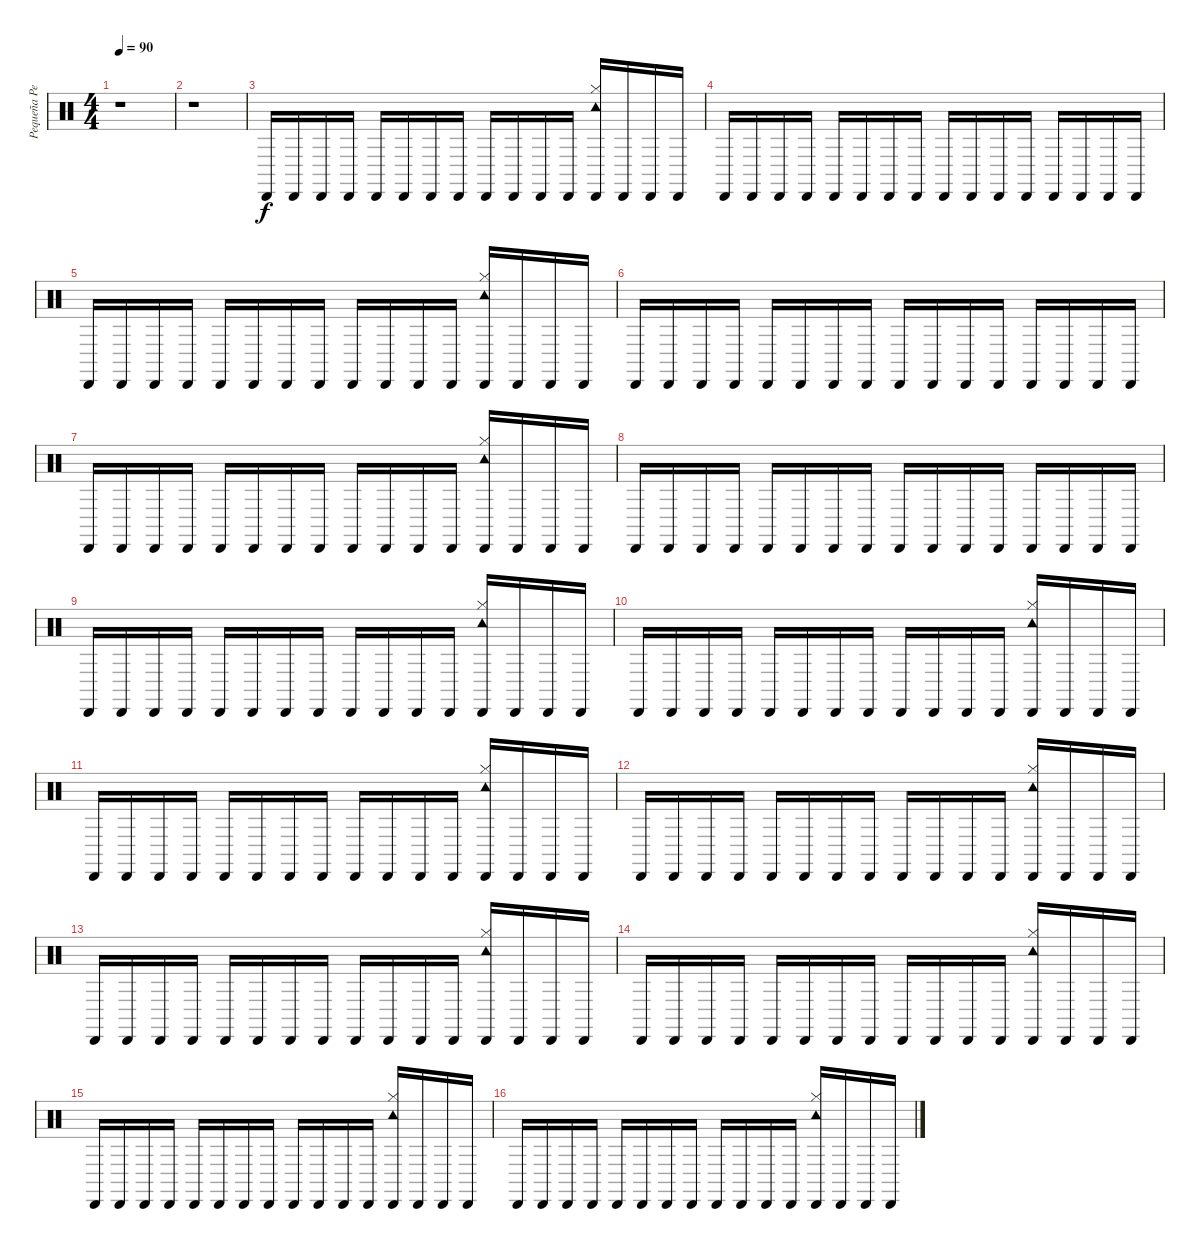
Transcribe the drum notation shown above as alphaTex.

\track ("Pequeña Percusión" "Pequeña Pe") {instrument percussion}
\staff {score}
\articulation defaults
\ts (4 4)
\tempo 90
\clef neutral
\ks c
r.1{dy f} |
r.1 |
"Cabasa (hit)".16 "Cabasa (hit)".16 "Cabasa (hit)".16 "Cabasa (hit)".16 "Cabasa (hit)".16 "Cabasa (hit)".16 "Cabasa (hit)".16 "Cabasa (hit)".16 "Cabasa (hit)".16 "Cabasa (hit)".16 "Cabasa (hit)".16 "Cabasa (hit)".16 ("Cabasa (hit)" "Tambourine (hit)" "Hi-Hat (closed)").16 "Cabasa (hit)".16 "Cabasa (hit)".16 "Cabasa (hit)".16 |
"Cabasa (hit)".16 "Cabasa (hit)".16 "Cabasa (hit)".16 "Cabasa (hit)".16 "Cabasa (hit)".16 "Cabasa (hit)".16 "Cabasa (hit)".16 "Cabasa (hit)".16 "Cabasa (hit)".16 "Cabasa (hit)".16 "Cabasa (hit)".16 "Cabasa (hit)".16 "Cabasa (hit)".16 "Cabasa (hit)".16 "Cabasa (hit)".16 "Cabasa (hit)".16 |
"Cabasa (hit)".16 "Cabasa (hit)".16 "Cabasa (hit)".16 "Cabasa (hit)".16 "Cabasa (hit)".16 "Cabasa (hit)".16 "Cabasa (hit)".16 "Cabasa (hit)".16 "Cabasa (hit)".16 "Cabasa (hit)".16 "Cabasa (hit)".16 "Cabasa (hit)".16 ("Cabasa (hit)" "Tambourine (hit)" "Hi-Hat (closed)").16 "Cabasa (hit)".16 "Cabasa (hit)".16 "Cabasa (hit)".16 |
"Cabasa (hit)".16 "Cabasa (hit)".16 "Cabasa (hit)".16 "Cabasa (hit)".16 "Cabasa (hit)".16 "Cabasa (hit)".16 "Cabasa (hit)".16 "Cabasa (hit)".16 "Cabasa (hit)".16 "Cabasa (hit)".16 "Cabasa (hit)".16 "Cabasa (hit)".16 "Cabasa (hit)".16 "Cabasa (hit)".16 "Cabasa (hit)".16 "Cabasa (hit)".16 |
"Cabasa (hit)".16 "Cabasa (hit)".16 "Cabasa (hit)".16 "Cabasa (hit)".16 "Cabasa (hit)".16 "Cabasa (hit)".16 "Cabasa (hit)".16 "Cabasa (hit)".16 "Cabasa (hit)".16 "Cabasa (hit)".16 "Cabasa (hit)".16 "Cabasa (hit)".16 ("Cabasa (hit)" "Tambourine (hit)" "Hi-Hat (closed)").16 "Cabasa (hit)".16 "Cabasa (hit)".16 "Cabasa (hit)".16 |
"Cabasa (hit)".16 "Cabasa (hit)".16 "Cabasa (hit)".16 "Cabasa (hit)".16 "Cabasa (hit)".16 "Cabasa (hit)".16 "Cabasa (hit)".16 "Cabasa (hit)".16 "Cabasa (hit)".16 "Cabasa (hit)".16 "Cabasa (hit)".16 "Cabasa (hit)".16 "Cabasa (hit)".16 "Cabasa (hit)".16 "Cabasa (hit)".16 "Cabasa (hit)".16 |
"Cabasa (hit)".16 "Cabasa (hit)".16 "Cabasa (hit)".16 "Cabasa (hit)".16 "Cabasa (hit)".16 "Cabasa (hit)".16 "Cabasa (hit)".16 "Cabasa (hit)".16 "Cabasa (hit)".16 "Cabasa (hit)".16 "Cabasa (hit)".16 "Cabasa (hit)".16 ("Cabasa (hit)" "Tambourine (hit)" "Hi-Hat (closed)").16 "Cabasa (hit)".16 "Cabasa (hit)".16 "Cabasa (hit)".16 |
"Cabasa (hit)".16 "Cabasa (hit)".16 "Cabasa (hit)".16 "Cabasa (hit)".16 "Cabasa (hit)".16 "Cabasa (hit)".16 "Cabasa (hit)".16 "Cabasa (hit)".16 "Cabasa (hit)".16 "Cabasa (hit)".16 "Cabasa (hit)".16 "Cabasa (hit)".16 ("Cabasa (hit)" "Tambourine (hit)" "Hi-Hat (closed)").16 "Cabasa (hit)".16 "Cabasa (hit)".16 "Cabasa (hit)".16 |
"Cabasa (hit)".16 "Cabasa (hit)".16 "Cabasa (hit)".16 "Cabasa (hit)".16 "Cabasa (hit)".16 "Cabasa (hit)".16 "Cabasa (hit)".16 "Cabasa (hit)".16 "Cabasa (hit)".16 "Cabasa (hit)".16 "Cabasa (hit)".16 "Cabasa (hit)".16 ("Cabasa (hit)" "Tambourine (hit)" "Hi-Hat (closed)").16 "Cabasa (hit)".16 "Cabasa (hit)".16 "Cabasa (hit)".16 |
"Cabasa (hit)".16 "Cabasa (hit)".16 "Cabasa (hit)".16 "Cabasa (hit)".16 "Cabasa (hit)".16 "Cabasa (hit)".16 "Cabasa (hit)".16 "Cabasa (hit)".16 "Cabasa (hit)".16 "Cabasa (hit)".16 "Cabasa (hit)".16 "Cabasa (hit)".16 ("Cabasa (hit)" "Tambourine (hit)" "Hi-Hat (closed)").16 "Cabasa (hit)".16 "Cabasa (hit)".16 "Cabasa (hit)".16 |
"Cabasa (hit)".16 "Cabasa (hit)".16 "Cabasa (hit)".16 "Cabasa (hit)".16 "Cabasa (hit)".16 "Cabasa (hit)".16 "Cabasa (hit)".16 "Cabasa (hit)".16 "Cabasa (hit)".16 "Cabasa (hit)".16 "Cabasa (hit)".16 "Cabasa (hit)".16 ("Cabasa (hit)" "Tambourine (hit)" "Hi-Hat (closed)").16 "Cabasa (hit)".16 "Cabasa (hit)".16 "Cabasa (hit)".16 |
"Cabasa (hit)".16 "Cabasa (hit)".16 "Cabasa (hit)".16 "Cabasa (hit)".16 "Cabasa (hit)".16 "Cabasa (hit)".16 "Cabasa (hit)".16 "Cabasa (hit)".16 "Cabasa (hit)".16 "Cabasa (hit)".16 "Cabasa (hit)".16 "Cabasa (hit)".16 ("Cabasa (hit)" "Tambourine (hit)" "Hi-Hat (closed)").16 "Cabasa (hit)".16 "Cabasa (hit)".16 "Cabasa (hit)".16 |
"Cabasa (hit)".16 "Cabasa (hit)".16 "Cabasa (hit)".16 "Cabasa (hit)".16 "Cabasa (hit)".16 "Cabasa (hit)".16 "Cabasa (hit)".16 "Cabasa (hit)".16 "Cabasa (hit)".16 "Cabasa (hit)".16 "Cabasa (hit)".16 "Cabasa (hit)".16 ("Cabasa (hit)" "Tambourine (hit)" "Hi-Hat (closed)").16 "Cabasa (hit)".16 "Cabasa (hit)".16 "Cabasa (hit)".16 |
"Cabasa (hit)".16 "Cabasa (hit)".16 "Cabasa (hit)".16 "Cabasa (hit)".16 "Cabasa (hit)".16 "Cabasa (hit)".16 "Cabasa (hit)".16 "Cabasa (hit)".16 "Cabasa (hit)".16 "Cabasa (hit)".16 "Cabasa (hit)".16 "Cabasa (hit)".16 ("Cabasa (hit)" "Tambourine (hit)" "Hi-Hat (closed)").16 "Cabasa (hit)".16 "Cabasa (hit)".16 "Cabasa (hit)".16
